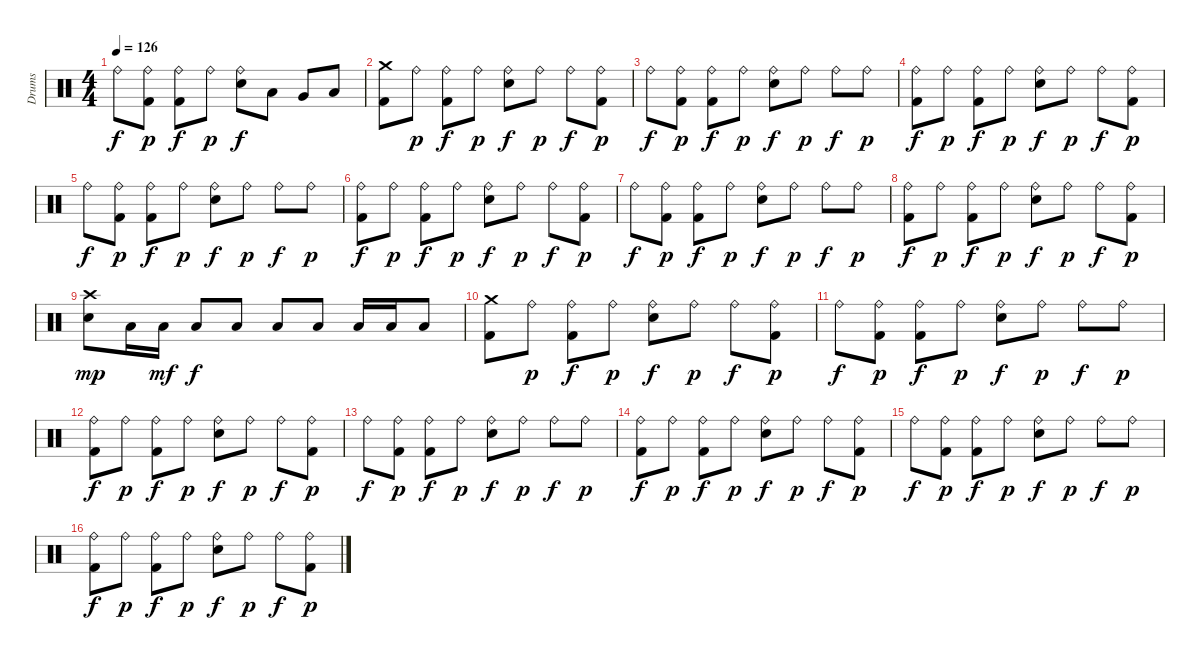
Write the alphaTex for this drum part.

\track ("Drums" "Drums") {instrument percussion}
\staff {score}
\articulation defaults
\ts (4 4)
\tempo 126
\clef neutral
\ks c "Ride (bell)".8{dy f}
("Ride (bell)" "Kick (hit) 2").8{dy p} ("Ride (bell)" "Kick (hit) 2").8{dy f} "Ride (bell)".8{dy p} ("Ride (bell)" "Electric Snare (hit)").8{dy f} "Low Tom (hit)".8 "Very Low Tom (hit)".8 "Low Floor Tom (hit)".8 |
("Crash medium (hit)" "Kick (hit) 2").8 "Ride (bell)".8{dy p} ("Ride (bell)" "Kick (hit) 2").8{dy f} "Ride (bell)".8{dy p} ("Ride (bell)" "Electric Snare (hit)").8{dy f} "Ride (bell)".8{dy p} "Ride (bell)".8{dy f} ("Ride (bell)" "Kick (hit) 2").8{dy p} |
"Ride (bell)".8{dy f} ("Ride (bell)" "Kick (hit) 2").8{dy p} ("Ride (bell)" "Kick (hit) 2").8{dy f} "Ride (bell)".8{dy p} ("Ride (bell)" "Electric Snare (hit)").8{dy f} "Ride (bell)".8{dy p} "Ride (bell)".8{dy f} "Ride (bell)".8{dy p} |
("Ride (bell)" "Kick (hit) 2").8{dy f} "Ride (bell)".8{dy p} ("Ride (bell)" "Kick (hit) 2").8{dy f} "Ride (bell)".8{dy p} ("Ride (bell)" "Electric Snare (hit)").8{dy f} "Ride (bell)".8{dy p} "Ride (bell)".8{dy f} ("Ride (bell)" "Kick (hit) 2").8{dy p} |
"Ride (bell)".8{dy f} ("Ride (bell)" "Kick (hit) 2").8{dy p} ("Ride (bell)" "Kick (hit) 2").8{dy f} "Ride (bell)".8{dy p} ("Ride (bell)" "Electric Snare (hit)").8{dy f} "Ride (bell)".8{dy p} "Ride (bell)".8{dy f} "Ride (bell)".8{dy p} |
("Ride (bell)" "Kick (hit) 2").8{dy f} "Ride (bell)".8{dy p} ("Ride (bell)" "Kick (hit) 2").8{dy f} "Ride (bell)".8{dy p} ("Ride (bell)" "Electric Snare (hit)").8{dy f} "Ride (bell)".8{dy p} "Ride (bell)".8{dy f} ("Ride (bell)" "Kick (hit) 2").8{dy p} |
"Ride (bell)".8{dy f} ("Ride (bell)" "Kick (hit) 2").8{dy p} ("Ride (bell)" "Kick (hit) 2").8{dy f} "Ride (bell)".8{dy p} ("Ride (bell)" "Electric Snare (hit)").8{dy f} "Ride (bell)".8{dy p} "Ride (bell)".8{dy f} "Ride (bell)".8{dy p} |
("Ride (bell)" "Kick (hit) 2").8{dy f} "Ride (bell)".8{dy p} ("Ride (bell)" "Kick (hit) 2").8{dy f} "Ride (bell)".8{dy p} ("Ride (bell)" "Electric Snare (hit)").8{dy f} "Ride (bell)".8{dy p} "Ride (bell)".8{dy f} ("Ride (bell)" "Kick (hit) 2").8{dy p} |
("Crash high (hit)" "Electric Snare (hit)").8{dy mp} "Low Floor Tom (hit)".16 "Low Floor Tom (hit)".16{dy mf} "Low Floor Tom (hit)".8{dy f} "Low Floor Tom (hit)".8 "Low Floor Tom (hit)".8 "Low Floor Tom (hit)".8 "Low Floor Tom (hit)".16 "Low Floor Tom (hit)".16 "Low Floor Tom (hit)".8 |
("Crash medium (hit)" "Kick (hit) 2").8 "Ride (bell)".8{dy p} ("Ride (bell)" "Kick (hit) 2").8{dy f} "Ride (bell)".8{dy p} ("Ride (bell)" "Electric Snare (hit)").8{dy f} "Ride (bell)".8{dy p} "Ride (bell)".8{dy f} ("Ride (bell)" "Kick (hit) 2").8{dy p} |
"Ride (bell)".8{dy f} ("Ride (bell)" "Kick (hit) 2").8{dy p} ("Ride (bell)" "Kick (hit) 2").8{dy f} "Ride (bell)".8{dy p} ("Ride (bell)" "Electric Snare (hit)").8{dy f} "Ride (bell)".8{dy p} "Ride (bell)".8{dy f} "Ride (bell)".8{dy p} |
("Ride (bell)" "Kick (hit) 2").8{dy f} "Ride (bell)".8{dy p} ("Ride (bell)" "Kick (hit) 2").8{dy f} "Ride (bell)".8{dy p} ("Ride (bell)" "Electric Snare (hit)").8{dy f} "Ride (bell)".8{dy p} "Ride (bell)".8{dy f} ("Ride (bell)" "Kick (hit) 2").8{dy p} |
"Ride (bell)".8{dy f} ("Ride (bell)" "Kick (hit) 2").8{dy p} ("Ride (bell)" "Kick (hit) 2").8{dy f} "Ride (bell)".8{dy p} ("Ride (bell)" "Electric Snare (hit)").8{dy f} "Ride (bell)".8{dy p} "Ride (bell)".8{dy f} "Ride (bell)".8{dy p} |
("Ride (bell)" "Kick (hit) 2").8{dy f} "Ride (bell)".8{dy p} ("Ride (bell)" "Kick (hit) 2").8{dy f} "Ride (bell)".8{dy p} ("Ride (bell)" "Electric Snare (hit)").8{dy f} "Ride (bell)".8{dy p} "Ride (bell)".8{dy f} ("Ride (bell)" "Kick (hit) 2").8{dy p} |
"Ride (bell)".8{dy f} ("Ride (bell)" "Kick (hit) 2").8{dy p} ("Ride (bell)" "Kick (hit) 2").8{dy f} "Ride (bell)".8{dy p} ("Ride (bell)" "Electric Snare (hit)").8{dy f} "Ride (bell)".8{dy p} "Ride (bell)".8{dy f} "Ride (bell)".8{dy p} |
("Ride (bell)" "Kick (hit) 2").8{dy f} "Ride (bell)".8{dy p} ("Ride (bell)" "Kick (hit) 2").8{dy f} "Ride (bell)".8{dy p} ("Ride (bell)" "Electric Snare (hit)").8{dy f} "Ride (bell)".8{dy p} "Ride (bell)".8{dy f} ("Ride (bell)" "Kick (hit) 2").8{dy p}
